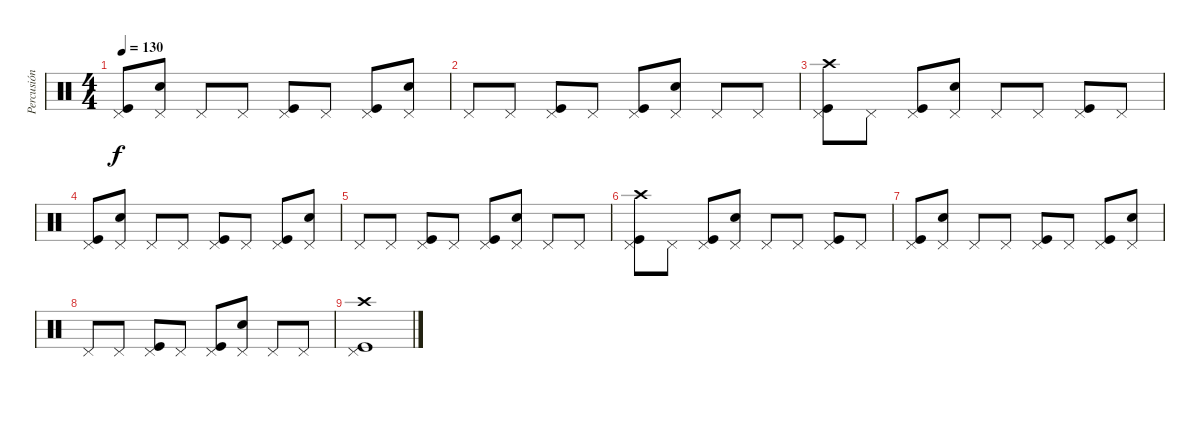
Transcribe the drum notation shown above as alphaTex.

\track ("Percusión" "Percusión") {instrument percussion}
\staff {score}
\articulation defaults
\ts (4 4)
\tempo 130
\clef neutral
\ks c
("Kick (hit)" "Pedal Hi-Hat (hit)").8{dy f} ("Electric Snare (hit)" "Pedal Hi-Hat (hit)").8 "Pedal Hi-Hat (hit)".8 "Pedal Hi-Hat (hit)".8 ("Kick (hit)" "Pedal Hi-Hat (hit)").8 "Pedal Hi-Hat (hit)".8 ("Kick (hit)" "Pedal Hi-Hat (hit)").8 ("Electric Snare (hit)" "Pedal Hi-Hat (hit)").8 |
"Pedal Hi-Hat (hit)".8 "Pedal Hi-Hat (hit)".8 ("Kick (hit)" "Pedal Hi-Hat (hit)").8 "Pedal Hi-Hat (hit)".8 ("Kick (hit)" "Pedal Hi-Hat (hit)").8 ("Electric Snare (hit)" "Pedal Hi-Hat (hit)").8 "Pedal Hi-Hat (hit)".8 "Pedal Hi-Hat (hit)".8 |
("Kick (hit)" "Pedal Hi-Hat (hit)" "Crash high (hit)").8 "Pedal Hi-Hat (hit)".8 ("Kick (hit)" "Pedal Hi-Hat (hit)").8 ("Electric Snare (hit)" "Pedal Hi-Hat (hit)").8 "Pedal Hi-Hat (hit)".8 "Pedal Hi-Hat (hit)".8 ("Kick (hit)" "Pedal Hi-Hat (hit)").8 "Pedal Hi-Hat (hit)".8 |
("Kick (hit)" "Pedal Hi-Hat (hit)").8 ("Electric Snare (hit)" "Pedal Hi-Hat (hit)").8 "Pedal Hi-Hat (hit)".8 "Pedal Hi-Hat (hit)".8 ("Kick (hit)" "Pedal Hi-Hat (hit)").8 "Pedal Hi-Hat (hit)".8 ("Kick (hit)" "Pedal Hi-Hat (hit)").8 ("Electric Snare (hit)" "Pedal Hi-Hat (hit)").8 |
"Pedal Hi-Hat (hit)".8 "Pedal Hi-Hat (hit)".8 ("Kick (hit)" "Pedal Hi-Hat (hit)").8 "Pedal Hi-Hat (hit)".8 ("Kick (hit)" "Pedal Hi-Hat (hit)").8 ("Electric Snare (hit)" "Pedal Hi-Hat (hit)").8 "Pedal Hi-Hat (hit)".8 "Pedal Hi-Hat (hit)".8 |
("Kick (hit)" "Pedal Hi-Hat (hit)" "Crash high (hit)").8 "Pedal Hi-Hat (hit)".8 ("Kick (hit)" "Pedal Hi-Hat (hit)").8 ("Electric Snare (hit)" "Pedal Hi-Hat (hit)").8 "Pedal Hi-Hat (hit)".8 "Pedal Hi-Hat (hit)".8 ("Kick (hit)" "Pedal Hi-Hat (hit)").8 "Pedal Hi-Hat (hit)".8 |
("Kick (hit)" "Pedal Hi-Hat (hit)").8 ("Electric Snare (hit)" "Pedal Hi-Hat (hit)").8 "Pedal Hi-Hat (hit)".8 "Pedal Hi-Hat (hit)".8 ("Kick (hit)" "Pedal Hi-Hat (hit)").8 "Pedal Hi-Hat (hit)".8 ("Kick (hit)" "Pedal Hi-Hat (hit)").8 ("Electric Snare (hit)" "Pedal Hi-Hat (hit)").8 |
"Pedal Hi-Hat (hit)".8 "Pedal Hi-Hat (hit)".8 ("Kick (hit)" "Pedal Hi-Hat (hit)").8 "Pedal Hi-Hat (hit)".8 ("Kick (hit)" "Pedal Hi-Hat (hit)").8 ("Electric Snare (hit)" "Pedal Hi-Hat (hit)").8 "Pedal Hi-Hat (hit)".8 "Pedal Hi-Hat (hit)".8 |
("Kick (hit)" "Pedal Hi-Hat (hit)" "Crash high (hit)").1
